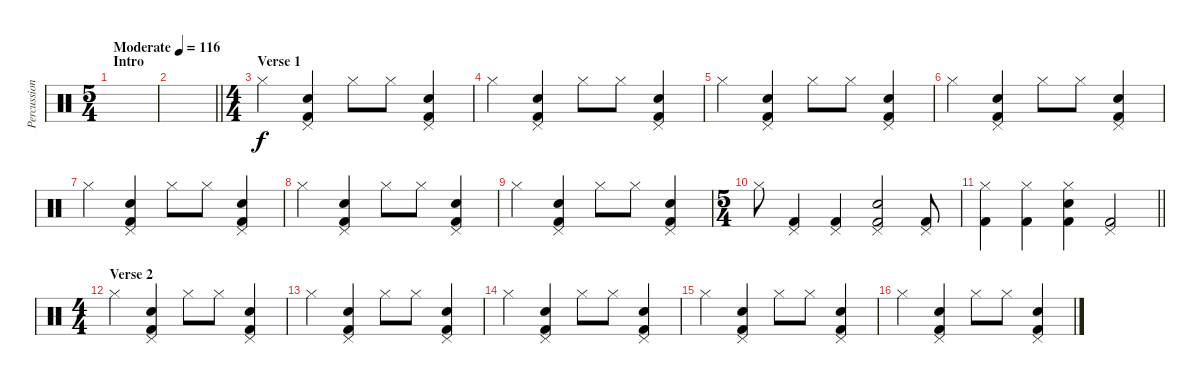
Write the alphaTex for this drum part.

\track ("Percussion" "Percussion") {instrument percussion}
\staff {score}
\articulation defaults
\ts (5 4)
\section ("" "Intro")
\tempo (116 "Moderate")
\clef neutral
\ks c
|
\barLineRight lightlight
|
\ts (4 4)
\section ("" "Verse 1")
"Hi-Hat (closed)".4 ("Pedal Hi-Hat (hit)" "Electric Snare (hit)" "Kick (hit) 2").4 "Hi-Hat (closed)".8 "Hi-Hat (closed)".8 ("Pedal Hi-Hat (hit)" "Electric Snare (hit)" "Kick (hit) 2").4 |
"Hi-Hat (closed)".4 ("Pedal Hi-Hat (hit)" "Electric Snare (hit)" "Kick (hit) 2").4 "Hi-Hat (closed)".8 "Hi-Hat (closed)".8 ("Pedal Hi-Hat (hit)" "Electric Snare (hit)" "Kick (hit) 2").4 |
"Hi-Hat (closed)".4 ("Pedal Hi-Hat (hit)" "Electric Snare (hit)" "Kick (hit) 2").4 "Hi-Hat (closed)".8 "Hi-Hat (closed)".8 ("Pedal Hi-Hat (hit)" "Electric Snare (hit)" "Kick (hit) 2").4 |
"Hi-Hat (closed)".4 ("Pedal Hi-Hat (hit)" "Electric Snare (hit)" "Kick (hit) 2").4 "Hi-Hat (closed)".8 "Hi-Hat (closed)".8 ("Pedal Hi-Hat (hit)" "Electric Snare (hit)" "Kick (hit) 2").4 |
"Hi-Hat (closed)".4 ("Pedal Hi-Hat (hit)" "Electric Snare (hit)" "Kick (hit) 2").4 "Hi-Hat (closed)".8 "Hi-Hat (closed)".8 ("Pedal Hi-Hat (hit)" "Electric Snare (hit)" "Kick (hit) 2").4 |
"Hi-Hat (closed)".4 ("Pedal Hi-Hat (hit)" "Electric Snare (hit)" "Kick (hit) 2").4 "Hi-Hat (closed)".8 "Hi-Hat (closed)".8 ("Pedal Hi-Hat (hit)" "Electric Snare (hit)" "Kick (hit) 2").4 |
"Hi-Hat (closed)".4 ("Pedal Hi-Hat (hit)" "Electric Snare (hit)" "Kick (hit) 2").4 "Hi-Hat (closed)".8 "Hi-Hat (closed)".8 ("Pedal Hi-Hat (hit)" "Electric Snare (hit)" "Kick (hit) 2").4 |
\ts (5 4)
"Hi-Hat (closed)".8 ("Pedal Hi-Hat (hit)" "Kick (hit) 2").4 ("Pedal Hi-Hat (hit)" "Kick (hit) 2").4 ("Pedal Hi-Hat (hit)" "Electric Snare (hit)" "Kick (hit) 2").2 ("Pedal Hi-Hat (hit)" "Kick (hit) 2").8 |
\barLineRight lightlight
("Hi-Hat (closed)" "Kick (hit) 2").4 ("Hi-Hat (closed)" "Kick (hit) 2").4 ("Hi-Hat (closed)" "Electric Snare (hit)" "Kick (hit) 2").4 ("Pedal Hi-Hat (hit)" "Kick (hit) 2").2 |
\ts (4 4)
\section ("" "Verse 2")
"Hi-Hat (closed)".4 ("Pedal Hi-Hat (hit)" "Electric Snare (hit)" "Kick (hit) 2").4 "Hi-Hat (closed)".8 "Hi-Hat (closed)".8 ("Pedal Hi-Hat (hit)" "Electric Snare (hit)" "Kick (hit) 2").4 |
"Hi-Hat (closed)".4 ("Pedal Hi-Hat (hit)" "Electric Snare (hit)" "Kick (hit) 2").4 "Hi-Hat (closed)".8 "Hi-Hat (closed)".8 ("Pedal Hi-Hat (hit)" "Electric Snare (hit)" "Kick (hit) 2").4 |
"Hi-Hat (closed)".4 ("Pedal Hi-Hat (hit)" "Electric Snare (hit)" "Kick (hit) 2").4 "Hi-Hat (closed)".8 "Hi-Hat (closed)".8 ("Pedal Hi-Hat (hit)" "Electric Snare (hit)" "Kick (hit) 2").4 |
"Hi-Hat (closed)".4 ("Pedal Hi-Hat (hit)" "Electric Snare (hit)" "Kick (hit) 2").4 "Hi-Hat (closed)".8 "Hi-Hat (closed)".8 ("Pedal Hi-Hat (hit)" "Electric Snare (hit)" "Kick (hit) 2").4 |
"Hi-Hat (closed)".4 ("Pedal Hi-Hat (hit)" "Electric Snare (hit)" "Kick (hit) 2").4 "Hi-Hat (closed)".8 "Hi-Hat (closed)".8 ("Pedal Hi-Hat (hit)" "Electric Snare (hit)" "Kick (hit) 2").4
